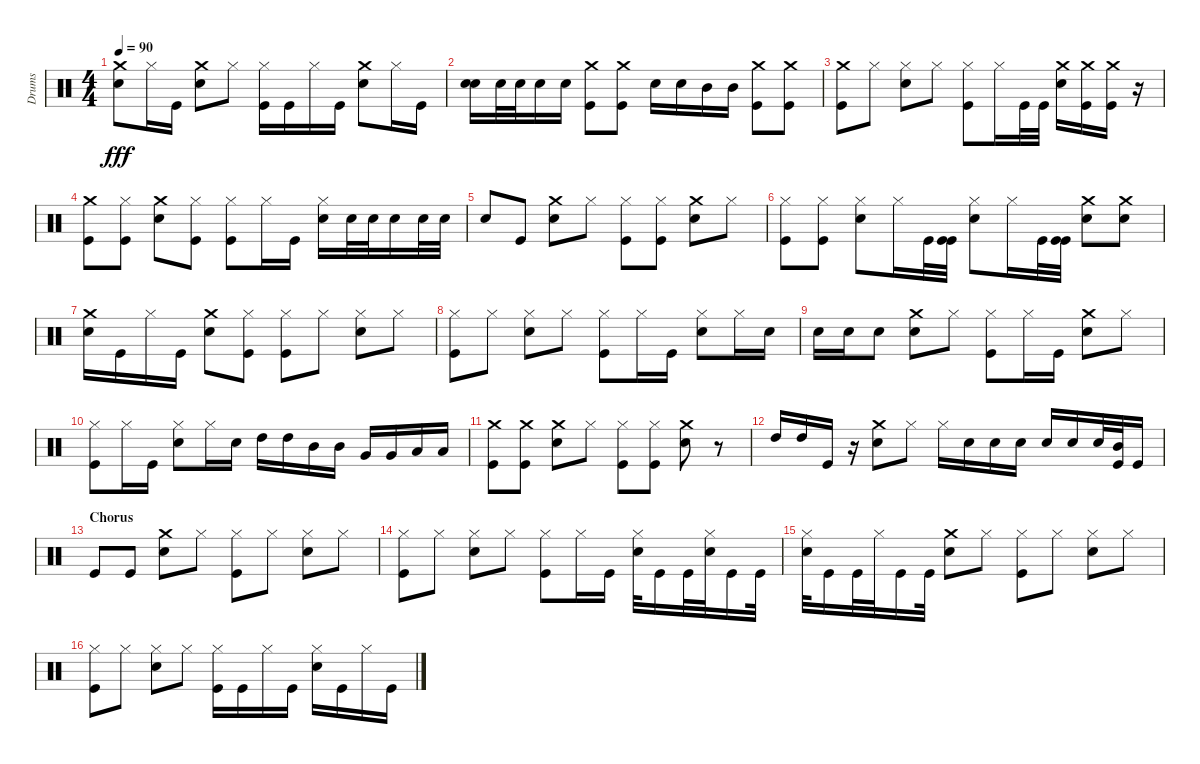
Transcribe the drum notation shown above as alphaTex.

\track ("Drums" "Drums") {instrument percussion}
\staff {score}
\articulation defaults
\ts (4 4)
\tempo 90
\clef neutral
\ks c
("Crash medium (hit)" "Snare (hit) 2").8{dy fff} "Hi-Hat (closed)".16 "Kick (hit)".16 ("Crash medium (hit)" "Snare (hit) 2").8 "Hi-Hat (closed)".8 ("Hi-Hat (closed)" "Kick (hit)").16 "Kick (hit)".16 "Hi-Hat (closed)".16 "Kick (hit)".16 ("Crash medium (hit)" "Snare (hit) 2").8 "Hi-Hat (closed)".16 "Kick (hit)".16 |
("Snare (hit) 2" "Snare (hit) 2").16 "Snare (hit) 2".32 "Snare (hit) 2".32 "Snare (hit) 2".16 "Snare (hit) 2".16 ("Crash medium (hit)" "Kick (hit)").8 ("Crash medium (hit)" "Kick (hit)").8 "Snare (hit) 2".16 "Snare (hit) 2".16 "Mid Tom (hit)".16 "Mid Tom (hit)".16 ("Crash medium (hit)" "Kick (hit)").8 ("Crash medium (hit)" "Kick (hit)").8 |
("Crash medium (hit)" "Kick (hit)").8 "Hi-Hat (closed)".8 ("Snare (hit) 2" "Hi-Hat (closed)").8 "Hi-Hat (closed)".8 ("Kick (hit)" "Hi-Hat (closed)").8 "Hi-Hat (closed)".16 "Kick (hit)".32 "Kick (hit)".32 ("Crash medium (hit)" "Snare (hit) 2").16 ("Kick (hit)" "Crash medium (hit)").16 ("Crash medium (hit)" "Kick (hit)").16 r.16 |
("Kick (hit)" "Crash medium (hit)").8 ("Hi-Hat (closed)" "Kick (hit)").8 ("Crash medium (hit)" "Snare (hit) 2").8 ("Kick (hit)" "Hi-Hat (closed)").8 ("Hi-Hat (closed)" "Kick (hit)").8 "Hi-Hat (closed)".16 "Kick (hit)".16 ("Hi-Hat (closed)" "Snare (hit) 2").16 "Snare (hit) 2".32 "Snare (hit) 2".32 "Snare (hit) 2".16 "Snare (hit) 2".32 "Snare (hit) 2".32 |
"Snare (hit) 2".8 "Kick (hit)".8 ("Crash medium (hit)" "Snare (hit) 2").8 "Hi-Hat (closed)".8 ("Kick (hit)" "Hi-Hat (closed)").8 ("Kick (hit)" "Hi-Hat (closed)").8 ("Crash medium (hit)" "Snare (hit) 2").8 "Hi-Hat (closed)".8 |
("Hi-Hat (closed)" "Kick (hit)").8 ("Hi-Hat (closed)" "Kick (hit)").8 ("Hi-Hat (closed)" "Snare (hit) 2").8 "Hi-Hat (closed)".16 "Kick (hit)".32 ("Kick (hit)" "Kick (hit)").32 ("Hi-Hat (closed)" "Snare (hit) 2").8 "Hi-Hat (closed)".16 "Kick (hit)".32 ("Kick (hit)" "Kick (hit)").32 ("Crash medium (hit)" "Snare (hit) 2").8 ("Crash medium (hit)" "Snare (hit) 2").8 |
("Crash medium (hit)" "Snare (hit) 2").16 "Kick (hit)".16 "Hi-Hat (closed)".16 "Kick (hit)".16 ("Crash medium (hit)" "Snare (hit) 2").8 ("Kick (hit)" "Hi-Hat (closed)").8 ("Hi-Hat (closed)" "Kick (hit)").8 "Hi-Hat (closed)".8 ("Snare (hit) 2" "Hi-Hat (closed)").8 "Hi-Hat (closed)".8 |
("Hi-Hat (closed)" "Kick (hit)").8 "Hi-Hat (closed)".8 ("Snare (hit) 2" "Hi-Hat (closed)").8 "Hi-Hat (closed)".8 ("Hi-Hat (closed)" "Kick (hit)").8 "Hi-Hat (closed)".16 "Kick (hit)".16 ("Snare (hit) 2" "Hi-Hat (closed)").8 "Hi-Hat (closed)".16 "Snare (hit) 2".16 |
"Snare (hit) 2".16 "Snare (hit) 2".16 "Snare (hit) 2".8 ("Crash medium (hit)" "Snare (hit) 2").8 "Hi-Hat (closed)".8 ("Kick (hit)" "Hi-Hat (closed)").8 "Hi-Hat (closed)".16 "Kick (hit)".16 ("Crash medium (hit)" "Snare (hit) 2").8 "Hi-Hat (closed)".8 |
("Kick (hit)" "Hi-Hat (closed)").8 "Hi-Hat (closed)".16 "Kick (hit)".16 ("Snare (hit) 2" "Hi-Hat (closed)").8 "Hi-Hat (closed)".16 "Snare (hit) 2".16 "High Tom (hit)".16 "High Tom (hit)".16 "Mid Tom (hit)".16 "Mid Tom (hit)".16 "Very Low Tom (hit)".16 "Very Low Tom (hit)".16 "Low Floor Tom (hit)".16 "Low Floor Tom (hit)".16 |
("Kick (hit)" "Crash medium (hit)").8 ("Kick (hit)" "Crash medium (hit)").8 ("Snare (hit) 2" "Crash medium (hit)").8 "Hi-Hat (closed)".8 ("Kick (hit)" "Hi-Hat (closed)").8 ("Kick (hit)" "Hi-Hat (closed)").8 ("Crash medium (hit)" "Snare (hit) 2").8 r.8 |
"High Tom (hit)".16 "High Tom (hit)".16 "Kick (hit)".16 r.16 ("Crash medium (hit)" "Snare (hit) 2").8 "Hi-Hat (closed)".8 "Hi-Hat (closed)".16 "Snare (hit) 2".16 "Snare (hit) 2".16 "Snare (hit) 2".16 "Snare (hit) 2".16 "Snare (hit) 2".16 "Snare (hit) 2".32 ("Mid Tom (hit)" "Kick (hit)").32 "Kick (hit)".16 |
\section ("" "Chorus")
"Kick (hit)".8 "Kick (hit)".8 ("Crash medium (hit)" "Snare (hit) 2").8 "Hi-Hat (closed)".8 ("Kick (hit)" "Hi-Hat (closed)").8 "Hi-Hat (closed)".8 ("Snare (hit) 2" "Hi-Hat (closed)").8 "Hi-Hat (closed)".8 |
("Hi-Hat (closed)" "Kick (hit)").8 "Hi-Hat (closed)".8 ("Snare (hit) 2" "Hi-Hat (closed)").8 "Hi-Hat (closed)".8 ("Hi-Hat (closed)" "Kick (hit)").8 "Hi-Hat (closed)".16 "Kick (hit)".16 ("Snare (hit) 2" "Hi-Hat (closed)").32 "Kick (hit)".16 "Kick (hit)".32 ("Snare (hit) 2" "Hi-Hat (closed)").32 "Kick (hit)".16 "Kick (hit)".32 |
("Snare (hit) 2" "Hi-Hat (closed)").32 "Kick (hit)".16 "Kick (hit)".32 "Hi-Hat (closed)".32 "Kick (hit)".16 "Kick (hit)".32 ("Crash medium (hit)" "Snare (hit) 2").8 "Hi-Hat (closed)".8 ("Hi-Hat (closed)" "Kick (hit)").8 "Hi-Hat (closed)".8 ("Snare (hit) 2" "Hi-Hat (closed)").8 "Hi-Hat (closed)".8 |
("Hi-Hat (closed)" "Kick (hit)").8 "Hi-Hat (closed)".8 ("Snare (hit) 2" "Hi-Hat (closed)").8 "Hi-Hat (closed)".8 ("Hi-Hat (closed)" "Kick (hit)").16 "Kick (hit)".16 "Hi-Hat (closed)".16 "Kick (hit)".16 ("Hi-Hat (closed)" "Snare (hit) 2").16 "Kick (hit)".16 "Hi-Hat (closed)".16 "Kick (hit)".16
